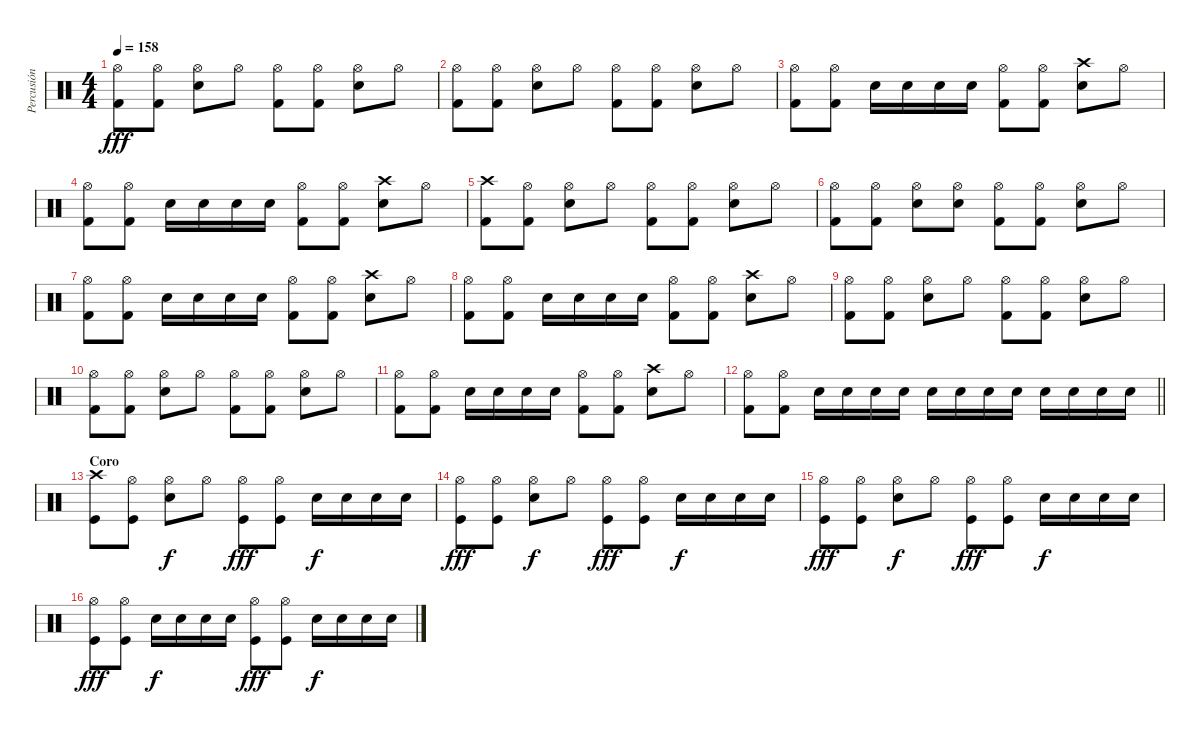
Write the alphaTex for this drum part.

\track ("Percusión" "Percusión") {instrument percussion}
\staff {score}
\articulation defaults
\ts (4 4)
\tempo 158
\clef neutral
\ks c
("Hi-Hat (open)" "Kick (hit) 2").8{dy fff} ("Hi-Hat (open)" "Kick (hit) 2").8 ("Hi-Hat (open)" "Electric Snare (hit)").8 "Hi-Hat (open)".8 ("Hi-Hat (open)" "Kick (hit) 2").8 ("Hi-Hat (open)" "Kick (hit) 2").8 ("Hi-Hat (open)" "Electric Snare (hit)").8 "Hi-Hat (open)".8 |
("Hi-Hat (open)" "Kick (hit) 2").8 ("Hi-Hat (open)" "Kick (hit) 2").8 ("Hi-Hat (open)" "Electric Snare (hit)").8 "Hi-Hat (open)".8 ("Hi-Hat (open)" "Kick (hit) 2").8 ("Hi-Hat (open)" "Kick (hit) 2").8 ("Hi-Hat (open)" "Electric Snare (hit)").8 "Hi-Hat (open)".8 |
("Hi-Hat (open)" "Kick (hit) 2").8 ("Hi-Hat (open)" "Kick (hit) 2").8 "Electric Snare (hit)".16 "Electric Snare (hit)".16 "Electric Snare (hit)".16 "Electric Snare (hit)".16 ("Hi-Hat (open)" "Kick (hit) 2").8 ("Hi-Hat (open)" "Kick (hit) 2").8 ("Crash high (hit)" "Electric Snare (hit)").8 "Hi-Hat (open)".8 |
("Hi-Hat (open)" "Kick (hit) 2").8 ("Hi-Hat (open)" "Kick (hit) 2").8 "Electric Snare (hit)".16 "Electric Snare (hit)".16 "Electric Snare (hit)".16 "Electric Snare (hit)".16 ("Hi-Hat (open)" "Kick (hit) 2").8 ("Hi-Hat (open)" "Kick (hit) 2").8 ("Crash high (hit)" "Electric Snare (hit)").8 "Hi-Hat (open)".8 |
("Crash high (hit)" "Kick (hit) 2").8 ("Hi-Hat (open)" "Kick (hit) 2").8 ("Hi-Hat (open)" "Electric Snare (hit)").8 "Hi-Hat (open)".8 ("Hi-Hat (open)" "Kick (hit) 2").8 ("Hi-Hat (open)" "Kick (hit) 2").8 ("Hi-Hat (open)" "Electric Snare (hit)").8 "Hi-Hat (open)".8 |
("Hi-Hat (open)" "Kick (hit) 2").8 ("Hi-Hat (open)" "Kick (hit) 2").8 ("Hi-Hat (open)" "Electric Snare (hit)").8 ("Hi-Hat (open)" "Snare (hit)").8 ("Hi-Hat (open)" "Kick (hit) 2").8 ("Hi-Hat (open)" "Kick (hit) 2").8 ("Hi-Hat (open)" "Electric Snare (hit)").8 "Hi-Hat (open)".8 |
("Hi-Hat (open)" "Kick (hit) 2").8 ("Hi-Hat (open)" "Kick (hit) 2").8 "Electric Snare (hit)".16 "Electric Snare (hit)".16 "Electric Snare (hit)".16 "Electric Snare (hit)".16 ("Hi-Hat (open)" "Kick (hit) 2").8 ("Hi-Hat (open)" "Kick (hit) 2").8 ("Crash high (hit)" "Electric Snare (hit)").8 "Hi-Hat (open)".8 |
("Hi-Hat (open)" "Kick (hit) 2").8 ("Hi-Hat (open)" "Kick (hit) 2").8 "Electric Snare (hit)".16 "Electric Snare (hit)".16 "Electric Snare (hit)".16 "Electric Snare (hit)".16 ("Hi-Hat (open)" "Kick (hit) 2").8 ("Hi-Hat (open)" "Kick (hit) 2").8 ("Crash high (hit)" "Electric Snare (hit)").8 "Hi-Hat (open)".8 |
("Hi-Hat (open)" "Kick (hit) 2").8 ("Hi-Hat (open)" "Kick (hit) 2").8 ("Hi-Hat (open)" "Electric Snare (hit)").8 "Hi-Hat (open)".8 ("Hi-Hat (open)" "Kick (hit) 2").8 ("Hi-Hat (open)" "Kick (hit) 2").8 ("Hi-Hat (open)" "Electric Snare (hit)").8 "Hi-Hat (open)".8 |
("Hi-Hat (open)" "Kick (hit) 2").8 ("Hi-Hat (open)" "Kick (hit) 2").8 ("Hi-Hat (open)" "Electric Snare (hit)").8 "Hi-Hat (open)".8 ("Hi-Hat (open)" "Kick (hit) 2").8 ("Hi-Hat (open)" "Kick (hit) 2").8 ("Hi-Hat (open)" "Electric Snare (hit)").8 "Hi-Hat (open)".8 |
("Hi-Hat (open)" "Kick (hit) 2").8 ("Hi-Hat (open)" "Kick (hit) 2").8 "Electric Snare (hit)".16 "Electric Snare (hit)".16 "Electric Snare (hit)".16 "Electric Snare (hit)".16 ("Hi-Hat (open)" "Kick (hit) 2").8 ("Hi-Hat (open)" "Kick (hit) 2").8 ("Crash high (hit)" "Electric Snare (hit)").8 "Hi-Hat (open)".8 |
\barLineRight lightlight
("Hi-Hat (open)" "Kick (hit) 2").8 ("Hi-Hat (open)" "Kick (hit) 2").8 "Electric Snare (hit)".16 "Electric Snare (hit)".16 "Electric Snare (hit)".16 "Electric Snare (hit)".16 "Electric Snare (hit)".16 "Electric Snare (hit)".16 "Electric Snare (hit)".16 "Electric Snare (hit)".16 "Electric Snare (hit)".16 "Electric Snare (hit)".16 "Electric Snare (hit)".16 "Electric Snare (hit)".16 |
\section ("" "Coro")
("Crash high (hit)" "Kick (hit)").8 ("Hi-Hat (open)" "Kick (hit)").8 ("Hi-Hat (open)" "Electric Snare (hit)").8{dy f} "Hi-Hat (open)".8 ("Hi-Hat (open)" "Kick (hit)").8{dy fff} ("Hi-Hat (open)" "Kick (hit)").8 "Electric Snare (hit)".16{dy f} "Electric Snare (hit)".16 "Electric Snare (hit)".16 "Electric Snare (hit)".16 |
("Hi-Hat (open)" "Kick (hit)").8{dy fff} ("Hi-Hat (open)" "Kick (hit)").8 ("Hi-Hat (open)" "Electric Snare (hit)").8{dy f} "Hi-Hat (open)".8 ("Hi-Hat (open)" "Kick (hit)").8{dy fff} ("Hi-Hat (open)" "Kick (hit)").8 "Electric Snare (hit)".16{dy f} "Electric Snare (hit)".16 "Electric Snare (hit)".16 "Electric Snare (hit)".16 |
("Hi-Hat (open)" "Kick (hit)").8{dy fff} ("Hi-Hat (open)" "Kick (hit)").8 ("Hi-Hat (open)" "Electric Snare (hit)").8{dy f} "Hi-Hat (open)".8 ("Hi-Hat (open)" "Kick (hit)").8{dy fff} ("Hi-Hat (open)" "Kick (hit)").8 "Electric Snare (hit)".16{dy f} "Electric Snare (hit)".16 "Electric Snare (hit)".16 "Electric Snare (hit)".16 |
("Hi-Hat (open)" "Kick (hit)").8{dy fff} ("Hi-Hat (open)" "Kick (hit)").8 "Electric Snare (hit)".16{dy f} "Electric Snare (hit)".16 "Electric Snare (hit)".16 "Electric Snare (hit)".16 ("Hi-Hat (open)" "Kick (hit)").8{dy fff} ("Hi-Hat (open)" "Kick (hit)").8 "Electric Snare (hit)".16{dy f} "Electric Snare (hit)".16 "Electric Snare (hit)".16 "Electric Snare (hit)".16
